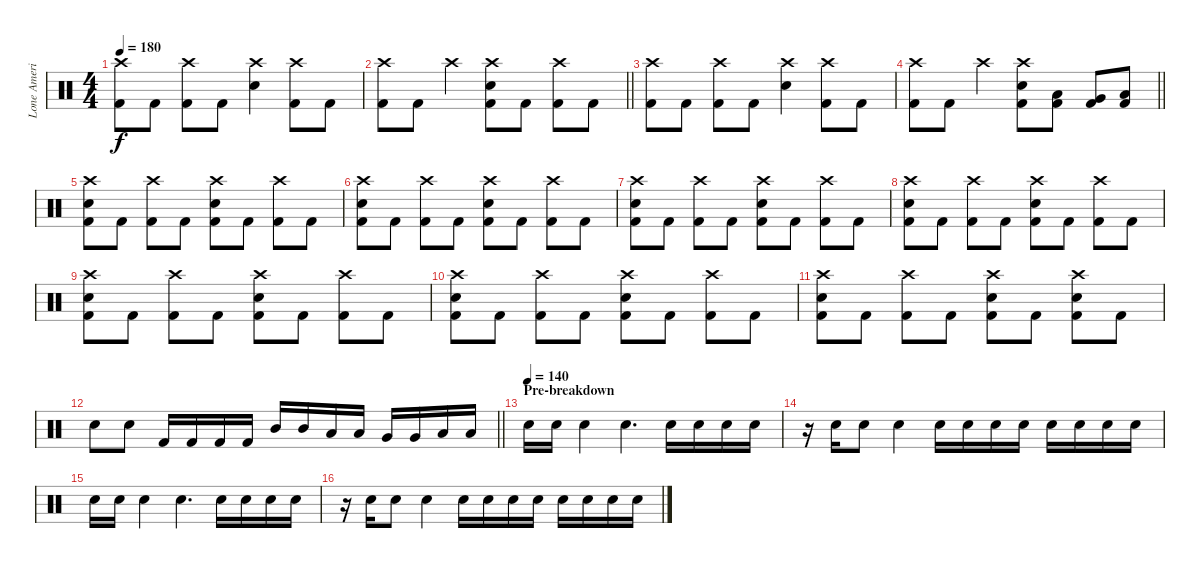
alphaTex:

\track ("Lone America" "Lone Ameri") {instrument percussion}
\staff {score}
\articulation defaults
\ts (4 4)
\tempo 180
\clef neutral
\ks c
("Crash high (hit)" "Kick (hit) 2").8{dy f} "Kick (hit) 2".8 ("Crash high (hit)" "Kick (hit) 2").8 "Kick (hit) 2".8 ("Crash high (hit)" "Electric Snare (hit)").4 ("Crash high (hit)" "Kick (hit) 2").8 "Kick (hit) 2".8 |
\barLineRight lightlight
("Crash high (hit)" "Kick (hit) 2").8 "Kick (hit) 2".8 "Crash high (hit)".4 ("Crash high (hit)" "Electric Snare (hit)" "Kick (hit) 2").8 "Kick (hit) 2".8 ("Crash high (hit)" "Kick (hit) 2").8 "Kick (hit) 2".8 |
("Crash high (hit)" "Kick (hit) 2").8 "Kick (hit) 2".8 ("Crash high (hit)" "Kick (hit) 2").8 "Kick (hit) 2".8 ("Crash high (hit)" "Electric Snare (hit)").4 ("Crash high (hit)" "Kick (hit) 2").8 "Kick (hit) 2".8 |
\barLineRight lightlight
("Crash high (hit)" "Kick (hit) 2").8 "Kick (hit) 2".8 "Crash high (hit)".4 ("Crash high (hit)" "Electric Snare (hit)" "Kick (hit) 2").8 ("Low Tom (hit)" "Kick (hit) 2").8 ("Very Low Tom (hit)" "Kick (hit) 2").8 ("Low Floor Tom (hit)" "Kick (hit) 2").8 |
("Crash high (hit)" "Electric Snare (hit)" "Kick (hit) 2").8 "Kick (hit) 2".8 ("Crash high (hit)" "Kick (hit) 2").8 "Kick (hit) 2".8 ("Crash high (hit)" "Electric Snare (hit)" "Kick (hit) 2").8 "Kick (hit) 2".8 ("Crash high (hit)" "Kick (hit) 2").8 "Kick (hit) 2".8 |
("Crash high (hit)" "Electric Snare (hit)" "Kick (hit) 2").8 "Kick (hit) 2".8 ("Crash high (hit)" "Kick (hit) 2").8 "Kick (hit) 2".8 ("Crash high (hit)" "Electric Snare (hit)" "Kick (hit) 2").8 "Kick (hit) 2".8 ("Crash high (hit)" "Kick (hit) 2").8 "Kick (hit) 2".8 |
("Crash high (hit)" "Electric Snare (hit)" "Kick (hit) 2").8 "Kick (hit) 2".8 ("Crash high (hit)" "Kick (hit) 2").8 "Kick (hit) 2".8 ("Crash high (hit)" "Electric Snare (hit)" "Kick (hit) 2").8 "Kick (hit) 2".8 ("Crash high (hit)" "Kick (hit) 2").8 "Kick (hit) 2".8 |
("Crash high (hit)" "Electric Snare (hit)" "Kick (hit) 2").8 "Kick (hit) 2".8 ("Crash high (hit)" "Kick (hit) 2").8 "Kick (hit) 2".8 ("Crash high (hit)" "Electric Snare (hit)" "Kick (hit) 2").8 "Kick (hit) 2".8 ("Crash high (hit)" "Kick (hit) 2").8 "Kick (hit) 2".8 |
("Crash high (hit)" "Electric Snare (hit)" "Kick (hit) 2").8 "Kick (hit) 2".8 ("Crash high (hit)" "Kick (hit) 2").8 "Kick (hit) 2".8 ("Crash high (hit)" "Electric Snare (hit)" "Kick (hit) 2").8 "Kick (hit) 2".8 ("Crash high (hit)" "Kick (hit) 2").8 "Kick (hit) 2".8 |
("Crash high (hit)" "Electric Snare (hit)" "Kick (hit) 2").8 "Kick (hit) 2".8 ("Crash high (hit)" "Kick (hit) 2").8 "Kick (hit) 2".8 ("Crash high (hit)" "Electric Snare (hit)" "Kick (hit) 2").8 "Kick (hit) 2".8 ("Crash high (hit)" "Kick (hit) 2").8 "Kick (hit) 2".8 |
("Crash high (hit)" "Electric Snare (hit)" "Kick (hit) 2").8 "Kick (hit) 2".8 ("Crash high (hit)" "Kick (hit) 2").8 "Kick (hit) 2".8 ("Crash high (hit)" "Electric Snare (hit)" "Kick (hit) 2").8 "Kick (hit) 2".8 ("Crash high (hit)" "Electric Snare (hit)" "Kick (hit) 2").8 "Kick (hit) 2".8 |
\barLineRight lightlight "Electric Snare (hit)".8 "Electric Snare (hit)".8 "Kick (hit) 2".16 "Kick (hit) 2".16 "Kick (hit) 2".16 "Kick (hit) 2".16 "Mid Tom (hit)".16 "Mid Tom (hit)".16 "Low Tom (hit)".16 "Low Tom (hit)".16 "Very Low Tom (hit)".16 "Very Low Tom (hit)".16 "Low Floor Tom (hit)".16 "Low Floor Tom (hit)".16
|
\section ("" "Pre-breakdown")
\tempo (140)
"Electric Snare (hit)".16 "Electric Snare (hit)".16 "Electric Snare (hit)".4 "Electric Snare (hit)".4{d} "Electric Snare (hit)".16 "Electric Snare (hit)".16 "Electric Snare (hit)".16 "Electric Snare (hit)".16 |
r.16 "Electric Snare (hit)".16 "Electric Snare (hit)".8 "Electric Snare (hit)".4 "Electric Snare (hit)".16 "Electric Snare (hit)".16 "Electric Snare (hit)".16 "Electric Snare (hit)".16 "Electric Snare (hit)".16 "Electric Snare (hit)".16 "Electric Snare (hit)".16 "Electric Snare (hit)".16 |
"Electric Snare (hit)".16 "Electric Snare (hit)".16 "Electric Snare (hit)".4 "Electric Snare (hit)".4{d} "Electric Snare (hit)".16 "Electric Snare (hit)".16 "Electric Snare (hit)".16 "Electric Snare (hit)".16 |
r.16 "Electric Snare (hit)".16 "Electric Snare (hit)".8 "Electric Snare (hit)".4 "Electric Snare (hit)".16 "Electric Snare (hit)".16 "Electric Snare (hit)".16 "Electric Snare (hit)".16 "Electric Snare (hit)".16 "Electric Snare (hit)".16 "Electric Snare (hit)".16 "Electric Snare (hit)".16
